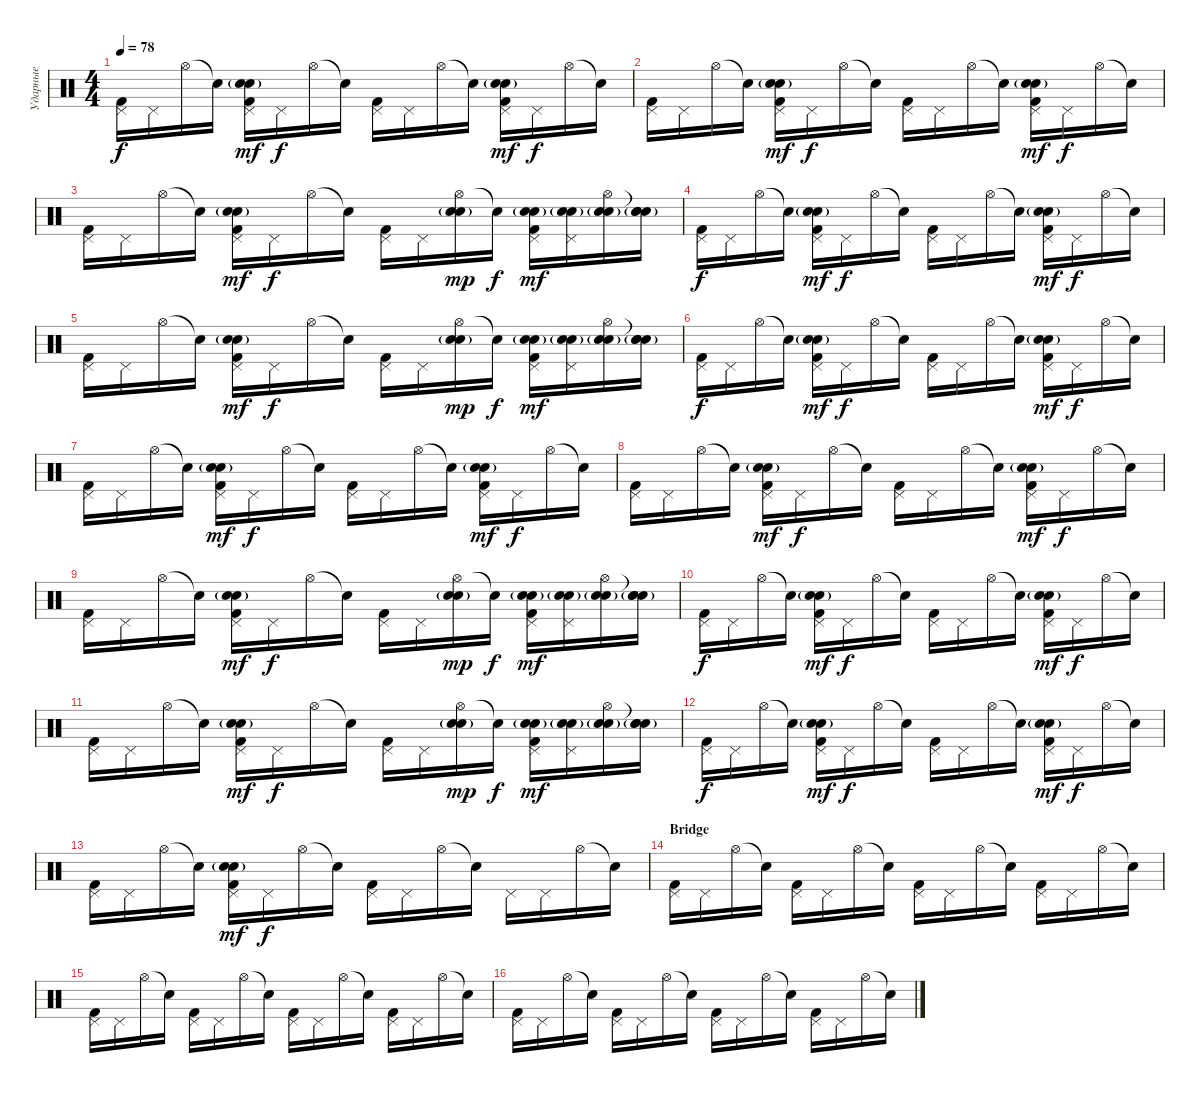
\track ("Ударные" "Ударные") {instrument percussion}
\staff {score}
\articulation defaults
\ts (4 4)
\tempo 78
\clef neutral
\ks c
("Pedal Hi-Hat (hit)" "Kick (hit) 2").16{dy f} "Pedal Hi-Hat (hit)".16 "Hi-Hat (open)".16 "Snare (hit)"{t}.16 ("Pedal Hi-Hat (hit)" "Snare (hit) 2" "Electric Snare (hit)"{g} "Kick (hit) 2").16{dy mf} "Pedal Hi-Hat (hit)".16{dy f} "Hi-Hat (open)".16 "Snare (hit)"{t}.16 ("Pedal Hi-Hat (hit)" "Kick (hit) 2").16 "Pedal Hi-Hat (hit)".16 "Hi-Hat (open)".16 "Snare (hit)"{t}.16 ("Pedal Hi-Hat (hit)" "Snare (hit) 2" "Electric Snare (hit)"{g} "Kick (hit) 2").16{dy mf} "Pedal Hi-Hat (hit)".16{dy f} "Hi-Hat (open)".16 "Snare (hit)"{t}.16 |
("Pedal Hi-Hat (hit)" "Kick (hit) 2").16 "Pedal Hi-Hat (hit)".16 "Hi-Hat (open)".16 "Snare (hit)"{t}.16 ("Pedal Hi-Hat (hit)" "Snare (hit) 2" "Electric Snare (hit)"{g} "Kick (hit) 2").16{dy mf} "Pedal Hi-Hat (hit)".16{dy f} "Hi-Hat (open)".16 "Snare (hit)"{t}.16 ("Pedal Hi-Hat (hit)" "Kick (hit) 2").16 "Pedal Hi-Hat (hit)".16 "Hi-Hat (open)".16 "Snare (hit)"{t}.16 ("Pedal Hi-Hat (hit)" "Snare (hit) 2" "Electric Snare (hit)"{g} "Kick (hit) 2").16{dy mf} "Pedal Hi-Hat (hit)".16{dy f} "Hi-Hat (open)".16 "Snare (hit)"{t}.16 |
("Pedal Hi-Hat (hit)" "Kick (hit) 2").16 "Pedal Hi-Hat (hit)".16 "Hi-Hat (open)".16 "Snare (hit)"{t}.16 ("Pedal Hi-Hat (hit)" "Snare (hit) 2" "Electric Snare (hit)"{g} "Kick (hit) 2").16{dy mf} "Pedal Hi-Hat (hit)".16{dy f} "Hi-Hat (open)".16 "Snare (hit)"{t}.16 ("Pedal Hi-Hat (hit)" "Kick (hit) 2").16 "Pedal Hi-Hat (hit)".16 ("Hi-Hat (open)" "Snare (hit) 2" "Electric Snare (hit)"{g}).16{dy mp} "Snare (hit)"{t}.16{dy f} ("Pedal Hi-Hat (hit)" "Snare (hit) 2" "Electric Snare (hit)"{g} "Kick (hit) 2").16{dy mf} ("Pedal Hi-Hat (hit)" "Snare (hit) 2" "Electric Snare (hit)"{g}).16 ("Hi-Hat (open)" "Snare (hit) 2" "Electric Snare (hit)"{g}).16 ("Snare (hit)"{t} "Snare (hit) 2" "Electric Snare (hit)"{g}).16 |
("Pedal Hi-Hat (hit)" "Kick (hit) 2").16{dy f} "Pedal Hi-Hat (hit)".16 "Hi-Hat (open)".16 "Snare (hit)"{t}.16 ("Pedal Hi-Hat (hit)" "Snare (hit) 2" "Electric Snare (hit)"{g} "Kick (hit) 2").16{dy mf} "Pedal Hi-Hat (hit)".16{dy f} "Hi-Hat (open)".16 "Snare (hit)"{t}.16 ("Pedal Hi-Hat (hit)" "Kick (hit) 2").16 "Pedal Hi-Hat (hit)".16 "Hi-Hat (open)".16 "Snare (hit)"{t}.16 ("Pedal Hi-Hat (hit)" "Snare (hit) 2" "Electric Snare (hit)"{g} "Kick (hit) 2").16{dy mf} "Pedal Hi-Hat (hit)".16{dy f} "Hi-Hat (open)".16 "Snare (hit)"{t}.16 |
("Pedal Hi-Hat (hit)" "Kick (hit) 2").16 "Pedal Hi-Hat (hit)".16 "Hi-Hat (open)".16 "Snare (hit)"{t}.16 ("Pedal Hi-Hat (hit)" "Snare (hit) 2" "Electric Snare (hit)"{g} "Kick (hit) 2").16{dy mf} "Pedal Hi-Hat (hit)".16{dy f} "Hi-Hat (open)".16 "Snare (hit)"{t}.16 ("Pedal Hi-Hat (hit)" "Kick (hit) 2").16 "Pedal Hi-Hat (hit)".16 ("Hi-Hat (open)" "Snare (hit) 2" "Electric Snare (hit)"{g}).16{dy mp} "Snare (hit)"{t}.16{dy f} ("Pedal Hi-Hat (hit)" "Snare (hit) 2" "Electric Snare (hit)"{g} "Kick (hit) 2").16{dy mf} ("Pedal Hi-Hat (hit)" "Snare (hit) 2" "Electric Snare (hit)"{g}).16 ("Hi-Hat (open)" "Snare (hit) 2" "Electric Snare (hit)"{g}).16 ("Snare (hit)"{t} "Snare (hit) 2" "Electric Snare (hit)"{g}).16 |
("Pedal Hi-Hat (hit)" "Kick (hit) 2").16{dy f} "Pedal Hi-Hat (hit)".16 "Hi-Hat (open)".16 "Snare (hit)"{t}.16 ("Pedal Hi-Hat (hit)" "Snare (hit) 2" "Electric Snare (hit)"{g} "Kick (hit) 2").16{dy mf} "Pedal Hi-Hat (hit)".16{dy f} "Hi-Hat (open)".16 "Snare (hit)"{t}.16 ("Pedal Hi-Hat (hit)" "Kick (hit) 2").16 "Pedal Hi-Hat (hit)".16 "Hi-Hat (open)".16 "Snare (hit)"{t}.16 ("Pedal Hi-Hat (hit)" "Snare (hit) 2" "Electric Snare (hit)"{g} "Kick (hit) 2").16{dy mf} "Pedal Hi-Hat (hit)".16{dy f} "Hi-Hat (open)".16 "Snare (hit)"{t}.16 |
("Pedal Hi-Hat (hit)" "Kick (hit) 2").16 "Pedal Hi-Hat (hit)".16 "Hi-Hat (open)".16 "Snare (hit)"{t}.16 ("Pedal Hi-Hat (hit)" "Snare (hit) 2" "Electric Snare (hit)"{g} "Kick (hit) 2").16{dy mf} "Pedal Hi-Hat (hit)".16{dy f} "Hi-Hat (open)".16 "Snare (hit)"{t}.16 ("Pedal Hi-Hat (hit)" "Kick (hit) 2").16 "Pedal Hi-Hat (hit)".16 "Hi-Hat (open)".16 "Snare (hit)"{t}.16 ("Pedal Hi-Hat (hit)" "Snare (hit) 2" "Electric Snare (hit)"{g} "Kick (hit) 2").16{dy mf} "Pedal Hi-Hat (hit)".16{dy f} "Hi-Hat (open)".16 "Snare (hit)"{t}.16 |
("Pedal Hi-Hat (hit)" "Kick (hit) 2").16 "Pedal Hi-Hat (hit)".16 "Hi-Hat (open)".16 "Snare (hit)"{t}.16 ("Pedal Hi-Hat (hit)" "Snare (hit) 2" "Electric Snare (hit)"{g} "Kick (hit) 2").16{dy mf} "Pedal Hi-Hat (hit)".16{dy f} "Hi-Hat (open)".16 "Snare (hit)"{t}.16 ("Pedal Hi-Hat (hit)" "Kick (hit) 2").16 "Pedal Hi-Hat (hit)".16 "Hi-Hat (open)".16 "Snare (hit)"{t}.16 ("Pedal Hi-Hat (hit)" "Snare (hit) 2" "Electric Snare (hit)"{g} "Kick (hit) 2").16{dy mf} "Pedal Hi-Hat (hit)".16{dy f} "Hi-Hat (open)".16 "Snare (hit)"{t}.16 |
("Pedal Hi-Hat (hit)" "Kick (hit) 2").16 "Pedal Hi-Hat (hit)".16 "Hi-Hat (open)".16 "Snare (hit)"{t}.16 ("Pedal Hi-Hat (hit)" "Snare (hit) 2" "Electric Snare (hit)"{g} "Kick (hit) 2").16{dy mf} "Pedal Hi-Hat (hit)".16{dy f} "Hi-Hat (open)".16 "Snare (hit)"{t}.16 ("Pedal Hi-Hat (hit)" "Kick (hit) 2").16 "Pedal Hi-Hat (hit)".16 ("Hi-Hat (open)" "Snare (hit) 2" "Electric Snare (hit)"{g}).16{dy mp} "Snare (hit)"{t}.16{dy f} ("Pedal Hi-Hat (hit)" "Snare (hit) 2" "Electric Snare (hit)"{g} "Kick (hit) 2").16{dy mf} ("Pedal Hi-Hat (hit)" "Snare (hit) 2" "Electric Snare (hit)"{g}).16 ("Hi-Hat (open)" "Snare (hit) 2" "Electric Snare (hit)"{g}).16 ("Snare (hit)"{t} "Snare (hit) 2" "Electric Snare (hit)"{g}).16 |
("Pedal Hi-Hat (hit)" "Kick (hit) 2").16{dy f} "Pedal Hi-Hat (hit)".16 "Hi-Hat (open)".16 "Snare (hit)"{t}.16 ("Pedal Hi-Hat (hit)" "Snare (hit) 2" "Electric Snare (hit)"{g} "Kick (hit) 2").16{dy mf} "Pedal Hi-Hat (hit)".16{dy f} "Hi-Hat (open)".16 "Snare (hit)"{t}.16 ("Pedal Hi-Hat (hit)" "Kick (hit) 2").16 "Pedal Hi-Hat (hit)".16 "Hi-Hat (open)".16 "Snare (hit)"{t}.16 ("Pedal Hi-Hat (hit)" "Snare (hit) 2" "Electric Snare (hit)"{g} "Kick (hit) 2").16{dy mf} "Pedal Hi-Hat (hit)".16{dy f} "Hi-Hat (open)".16 "Snare (hit)"{t}.16 |
("Pedal Hi-Hat (hit)" "Kick (hit) 2").16 "Pedal Hi-Hat (hit)".16 "Hi-Hat (open)".16 "Snare (hit)"{t}.16 ("Pedal Hi-Hat (hit)" "Snare (hit) 2" "Electric Snare (hit)"{g} "Kick (hit) 2").16{dy mf} "Pedal Hi-Hat (hit)".16{dy f} "Hi-Hat (open)".16 "Snare (hit)"{t}.16 ("Pedal Hi-Hat (hit)" "Kick (hit) 2").16 "Pedal Hi-Hat (hit)".16 ("Hi-Hat (open)" "Snare (hit) 2" "Electric Snare (hit)"{g}).16{dy mp} "Snare (hit)"{t}.16{dy f} ("Pedal Hi-Hat (hit)" "Snare (hit) 2" "Electric Snare (hit)"{g} "Kick (hit) 2").16{dy mf} ("Pedal Hi-Hat (hit)" "Snare (hit) 2" "Electric Snare (hit)"{g}).16 ("Hi-Hat (open)" "Snare (hit) 2" "Electric Snare (hit)"{g}).16 ("Snare (hit)"{t} "Snare (hit) 2" "Electric Snare (hit)"{g}).16 |
("Pedal Hi-Hat (hit)" "Kick (hit) 2").16{dy f} "Pedal Hi-Hat (hit)".16 "Hi-Hat (open)".16 "Snare (hit)"{t}.16 ("Pedal Hi-Hat (hit)" "Snare (hit) 2" "Electric Snare (hit)"{g} "Kick (hit) 2").16{dy mf} "Pedal Hi-Hat (hit)".16{dy f} "Hi-Hat (open)".16 "Snare (hit)"{t}.16 ("Pedal Hi-Hat (hit)" "Kick (hit) 2").16 "Pedal Hi-Hat (hit)".16 "Hi-Hat (open)".16 "Snare (hit)"{t}.16 ("Pedal Hi-Hat (hit)" "Snare (hit) 2" "Electric Snare (hit)"{g} "Kick (hit) 2").16{dy mf} "Pedal Hi-Hat (hit)".16{dy f} "Hi-Hat (open)".16 "Snare (hit)"{t}.16 |
("Pedal Hi-Hat (hit)" "Kick (hit) 2").16 "Pedal Hi-Hat (hit)".16 "Hi-Hat (open)".16 "Snare (hit)"{t}.16 ("Pedal Hi-Hat (hit)" "Snare (hit) 2" "Electric Snare (hit)"{g} "Kick (hit) 2").16{dy mf} "Pedal Hi-Hat (hit)".16{dy f} "Hi-Hat (open)".16 "Snare (hit)"{t}.16 ("Pedal Hi-Hat (hit)" "Kick (hit) 2").16 "Pedal Hi-Hat (hit)".16 "Hi-Hat (open)".16 "Snare (hit)"{t}.16 "Pedal Hi-Hat (hit)".16 "Pedal Hi-Hat (hit)".16 "Hi-Hat (open)".16 "Snare (hit)"{t}.16 |
\section ("" "Bridge")
("Pedal Hi-Hat (hit)" "Kick (hit) 2").16 "Pedal Hi-Hat (hit)".16 "Hi-Hat (open)".16 "Snare (hit)"{t}.16 ("Pedal Hi-Hat (hit)" "Kick (hit) 2").16 "Pedal Hi-Hat (hit)".16 "Hi-Hat (open)".16 "Snare (hit)"{t}.16 ("Pedal Hi-Hat (hit)" "Kick (hit) 2").16 "Pedal Hi-Hat (hit)".16 "Hi-Hat (open)".16 "Snare (hit)"{t}.16 ("Pedal Hi-Hat (hit)" "Kick (hit) 2").16 "Pedal Hi-Hat (hit)".16 "Hi-Hat (open)".16 "Snare (hit)"{t}.16 |
("Pedal Hi-Hat (hit)" "Kick (hit) 2").16 "Pedal Hi-Hat (hit)".16 "Hi-Hat (open)".16 "Snare (hit)"{t}.16 ("Pedal Hi-Hat (hit)" "Kick (hit) 2").16 "Pedal Hi-Hat (hit)".16 "Hi-Hat (open)".16 "Snare (hit)"{t}.16 ("Pedal Hi-Hat (hit)" "Kick (hit) 2").16 "Pedal Hi-Hat (hit)".16 "Hi-Hat (open)".16 "Snare (hit)"{t}.16 ("Pedal Hi-Hat (hit)" "Kick (hit) 2").16 "Pedal Hi-Hat (hit)".16 "Hi-Hat (open)".16 "Snare (hit)"{t}.16 |
("Pedal Hi-Hat (hit)" "Kick (hit) 2").16 "Pedal Hi-Hat (hit)".16 "Hi-Hat (open)".16 "Snare (hit)"{t}.16 ("Pedal Hi-Hat (hit)" "Kick (hit) 2").16 "Pedal Hi-Hat (hit)".16 "Hi-Hat (open)".16 "Snare (hit)"{t}.16 ("Pedal Hi-Hat (hit)" "Kick (hit) 2").16 "Pedal Hi-Hat (hit)".16 "Hi-Hat (open)".16 "Snare (hit)"{t}.16 ("Pedal Hi-Hat (hit)" "Kick (hit) 2").16 "Pedal Hi-Hat (hit)".16 "Hi-Hat (open)".16 "Snare (hit)"{t}.16
